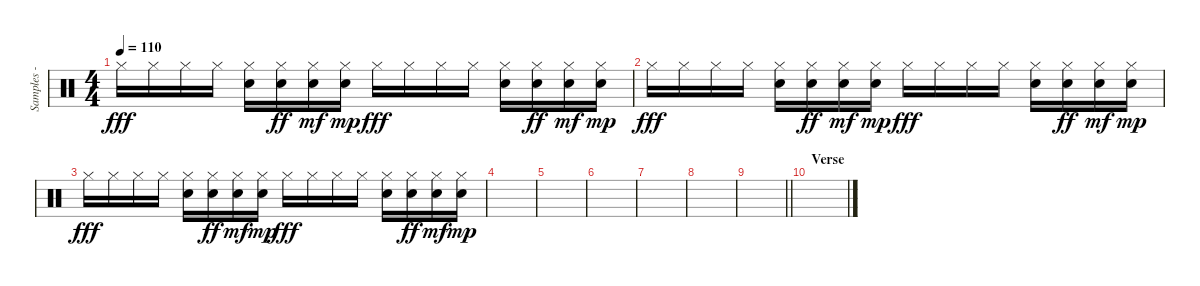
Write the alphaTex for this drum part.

\track ("Samples - Joe Hahn" "Samples - ") {instrument percussion}
\staff {score}
\articulation defaults
\ts (4 4)
\tempo 110
\clef neutral
\ks c "Hi-Hat (closed)".16{dy fff} "Hi-Hat (closed)".16 "Hi-Hat (closed)".16 "Hi-Hat (closed)".16
("Hi-Hat (closed)" "Electric Snare (hit)").16 ("Hi-Hat (closed)" "Electric Snare (hit)").16{dy ff} ("Hi-Hat (closed)" "Electric Snare (hit)").16{dy mf} ("Hi-Hat (closed)" "Electric Snare (hit)").16{dy mp} "Hi-Hat (closed)".16{dy fff} "Hi-Hat (closed)".16 "Hi-Hat (closed)".16 "Hi-Hat (closed)".16 ("Hi-Hat (closed)" "Electric Snare (hit)").16 ("Hi-Hat (closed)" "Electric Snare (hit)").16{dy ff} ("Hi-Hat (closed)" "Electric Snare (hit)").16{dy mf} ("Hi-Hat (closed)" "Electric Snare (hit)").16{dy mp} |
"Hi-Hat (closed)".16{dy fff} "Hi-Hat (closed)".16 "Hi-Hat (closed)".16 "Hi-Hat (closed)".16 ("Hi-Hat (closed)" "Electric Snare (hit)").16 ("Hi-Hat (closed)" "Electric Snare (hit)").16{dy ff} ("Hi-Hat (closed)" "Electric Snare (hit)").16{dy mf} ("Hi-Hat (closed)" "Electric Snare (hit)").16{dy mp} "Hi-Hat (closed)".16{dy fff} "Hi-Hat (closed)".16 "Hi-Hat (closed)".16 "Hi-Hat (closed)".16 ("Hi-Hat (closed)" "Electric Snare (hit)").16 ("Hi-Hat (closed)" "Electric Snare (hit)").16{dy ff} ("Hi-Hat (closed)" "Electric Snare (hit)").16{dy mf} ("Hi-Hat (closed)" "Electric Snare (hit)").16{dy mp} |
"Hi-Hat (closed)".16{dy fff} "Hi-Hat (closed)".16 "Hi-Hat (closed)".16 "Hi-Hat (closed)".16 ("Hi-Hat (closed)" "Electric Snare (hit)").16 ("Hi-Hat (closed)" "Electric Snare (hit)").16{dy ff} ("Hi-Hat (closed)" "Electric Snare (hit)").16{dy mf} ("Hi-Hat (closed)" "Electric Snare (hit)").16{dy mp} "Hi-Hat (closed)".16{dy fff} "Hi-Hat (closed)".16 "Hi-Hat (closed)".16 "Hi-Hat (closed)".16 ("Hi-Hat (closed)" "Electric Snare (hit)").16 ("Hi-Hat (closed)" "Electric Snare (hit)").16{dy ff} ("Hi-Hat (closed)" "Electric Snare (hit)").16{dy mf} ("Hi-Hat (closed)" "Electric Snare (hit)").16{dy mp} |
|
|
|
|
|
\barLineRight lightlight
|
\section ("" "Verse")
